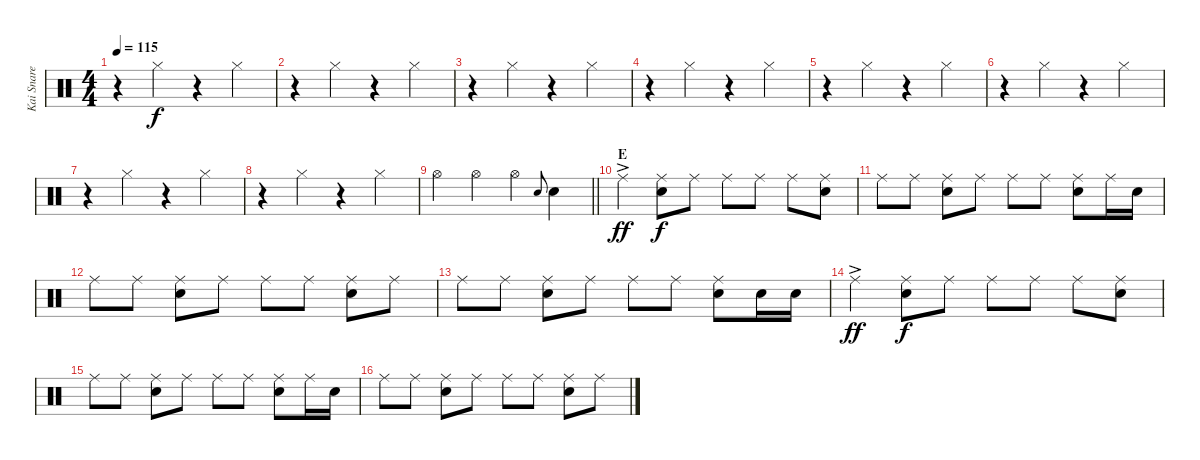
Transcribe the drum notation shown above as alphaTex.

\track ("Kai Snare" "Kai Snare") {instrument percussion}
\staff {score}
\articulation defaults
\ts (4 4)
\tempo 115
\clef neutral
\ks c
r.4{dy f} "Hi-Hat (closed)".4 r.4 "Hi-Hat (closed)".4 |
r.4 "Hi-Hat (closed)".4 r.4 "Hi-Hat (closed)".4 |
r.4 "Hi-Hat (closed)".4 r.4 "Hi-Hat (closed)".4 |
r.4 "Hi-Hat (closed)".4 r.4 "Hi-Hat (closed)".4 |
r.4 "Hi-Hat (closed)".4 r.4 "Hi-Hat (closed)".4 |
r.4 "Hi-Hat (closed)".4 r.4 "Hi-Hat (closed)".4 |
r.4 "Hi-Hat (closed)".4 r.4 "Hi-Hat (closed)".4 |
r.4 "Hi-Hat (closed)".4 r.4 "Hi-Hat (closed)".4 |
\barLineRight lightlight "Hi-Hat (open)".4 "Hi-Hat (open)".4 "Hi-Hat (open)".4 "Snare (hit) 2".8{gr onbeat} "Snare (hit) 2".4
|
\section ("" "E")
"Ride (middle)"{ac}.4{dy ff} ("Ride (middle)" "Snare (hit) 2").8{dy f} "Ride (middle)".8 "Ride (middle)".8 "Ride (middle)".8 "Ride (middle)".8 ("Ride (middle)" "Snare (hit) 2").8 |
"Ride (middle)".8 "Ride (middle)".8 ("Ride (middle)" "Snare (hit) 2").8 "Ride (middle)".8 "Ride (middle)".8 "Ride (middle)".8 ("Ride (middle)" "Snare (hit) 2").8 "Ride (middle)".16 "Snare (hit) 2".16 |
"Ride (middle)".8 "Ride (middle)".8 ("Ride (middle)" "Snare (hit) 2").8 "Ride (middle)".8 "Ride (middle)".8 "Ride (middle)".8 ("Ride (middle)" "Snare (hit) 2").8 "Ride (middle)".8 |
"Ride (middle)".8 "Ride (middle)".8 ("Ride (middle)" "Snare (hit) 2").8 "Ride (middle)".8 "Ride (middle)".8 "Ride (middle)".8 ("Ride (middle)" "Snare (hit) 2").8 "Snare (hit) 2".16 "Snare (hit) 2".16 |
"Ride (middle)"{ac}.4{dy ff} ("Ride (middle)" "Snare (hit) 2").8{dy f} "Ride (middle)".8 "Ride (middle)".8 "Ride (middle)".8 "Ride (middle)".8 ("Ride (middle)" "Snare (hit) 2").8 |
"Ride (middle)".8 "Ride (middle)".8 ("Ride (middle)" "Snare (hit) 2").8 "Ride (middle)".8 "Ride (middle)".8 "Ride (middle)".8 ("Ride (middle)" "Snare (hit) 2").8 "Ride (middle)".16 "Snare (hit) 2".16 |
"Ride (middle)".8 "Ride (middle)".8 ("Ride (middle)" "Snare (hit) 2").8 "Ride (middle)".8 "Ride (middle)".8 "Ride (middle)".8 ("Ride (middle)" "Snare (hit) 2").8 "Ride (middle)".8
